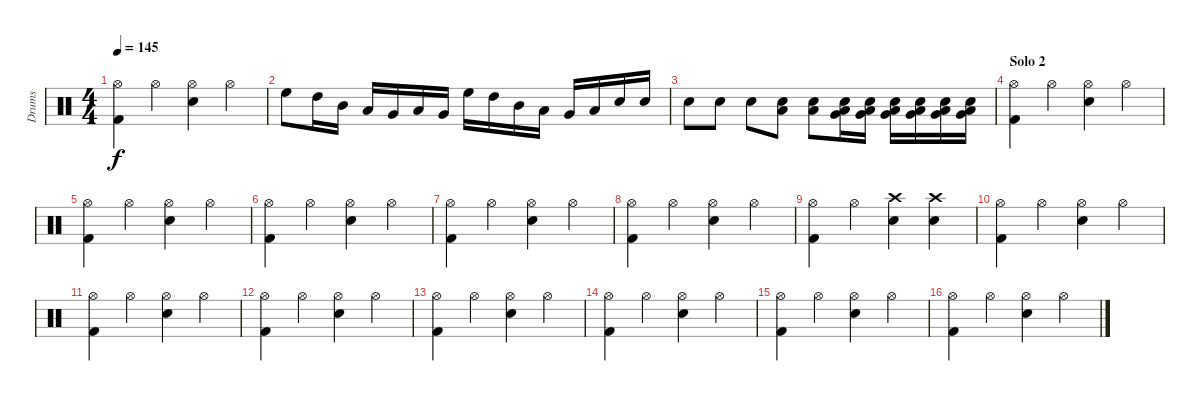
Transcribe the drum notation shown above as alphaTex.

\track ("Drums" "Drums") {instrument percussion}
\staff {score}
\articulation defaults
\ts (4 4)
\tempo 145
\clef neutral
\ks c
("Hi-Hat (open)" "Kick (hit) 2").4{dy f} "Hi-Hat (open)".4 ("Hi-Hat (open)" "Electric Snare (hit)").4 "Hi-Hat (open)".4 |
"High Floor Tom (hit)".8 "High Tom (hit)".16 "Mid Tom (hit)".16 "Low Tom (hit)".16 "Very Low Tom (hit)".16 "Low Floor Tom (hit)".16 "Very Low Tom (hit)".16 "High Floor Tom (hit)".16 "High Tom (hit)".16 "Mid Tom (hit)".16 "Low Tom (hit)".16 "Very Low Tom (hit)".16 "Low Floor Tom (hit)".16 "Electric Snare (hit)".16 "Electric Snare (hit)".16 |
"Electric Snare (hit)".8 "Electric Snare (hit)".8 "Electric Snare (hit)".8 ("Low Floor Tom (hit)" "Electric Snare (hit)").8 ("Low Floor Tom (hit)" "Electric Snare (hit)").8 ("Very Low Tom (hit)" "Low Floor Tom (hit)" "Electric Snare (hit)").16 ("Very Low Tom (hit)" "Low Floor Tom (hit)" "Electric Snare (hit)").16 ("Very Low Tom (hit)" "Low Floor Tom (hit)" "Electric Snare (hit)").16 ("Very Low Tom (hit)" "Low Floor Tom (hit)" "Electric Snare (hit)").16 ("Very Low Tom (hit)" "Low Floor Tom (hit)" "Electric Snare (hit)").16 ("Very Low Tom (hit)" "Low Floor Tom (hit)" "Electric Snare (hit)").16 |
\section ("" "Solo 2")
("Hi-Hat (open)" "Kick (hit) 2").4 "Hi-Hat (open)".4 ("Hi-Hat (open)" "Electric Snare (hit)").4 "Hi-Hat (open)".4 |
("Hi-Hat (open)" "Kick (hit) 2").4 "Hi-Hat (open)".4 ("Hi-Hat (open)" "Electric Snare (hit)").4 "Hi-Hat (open)".4 |
("Hi-Hat (open)" "Kick (hit) 2").4 "Hi-Hat (open)".4 ("Hi-Hat (open)" "Electric Snare (hit)").4 "Hi-Hat (open)".4 |
("Hi-Hat (open)" "Kick (hit) 2").4 "Hi-Hat (open)".4 ("Hi-Hat (open)" "Electric Snare (hit)").4 "Hi-Hat (open)".4 |
("Hi-Hat (open)" "Kick (hit) 2").4 "Hi-Hat (open)".4 ("Hi-Hat (open)" "Electric Snare (hit)").4 "Hi-Hat (open)".4 |
("Hi-Hat (open)" "Kick (hit) 2").4 "Hi-Hat (open)".4 ("Crash high (hit)" "Electric Snare (hit)").4 ("Crash high (hit)" "Electric Snare (hit)").4 |
("Hi-Hat (open)" "Kick (hit) 2").4 "Hi-Hat (open)".4 ("Hi-Hat (open)" "Electric Snare (hit)").4 "Hi-Hat (open)".4 |
("Hi-Hat (open)" "Kick (hit) 2").4 "Hi-Hat (open)".4 ("Hi-Hat (open)" "Electric Snare (hit)").4 "Hi-Hat (open)".4 |
("Hi-Hat (open)" "Kick (hit) 2").4 "Hi-Hat (open)".4 ("Hi-Hat (open)" "Electric Snare (hit)").4 "Hi-Hat (open)".4 |
("Hi-Hat (open)" "Kick (hit) 2").4 "Hi-Hat (open)".4 ("Hi-Hat (open)" "Electric Snare (hit)").4 "Hi-Hat (open)".4 |
("Hi-Hat (open)" "Kick (hit) 2").4 "Hi-Hat (open)".4 ("Hi-Hat (open)" "Electric Snare (hit)").4 "Hi-Hat (open)".4 |
("Hi-Hat (open)" "Kick (hit) 2").4 "Hi-Hat (open)".4 ("Hi-Hat (open)" "Electric Snare (hit)").4 "Hi-Hat (open)".4 |
("Hi-Hat (open)" "Kick (hit) 2").4 "Hi-Hat (open)".4 ("Hi-Hat (open)" "Electric Snare (hit)").4 "Hi-Hat (open)".4
